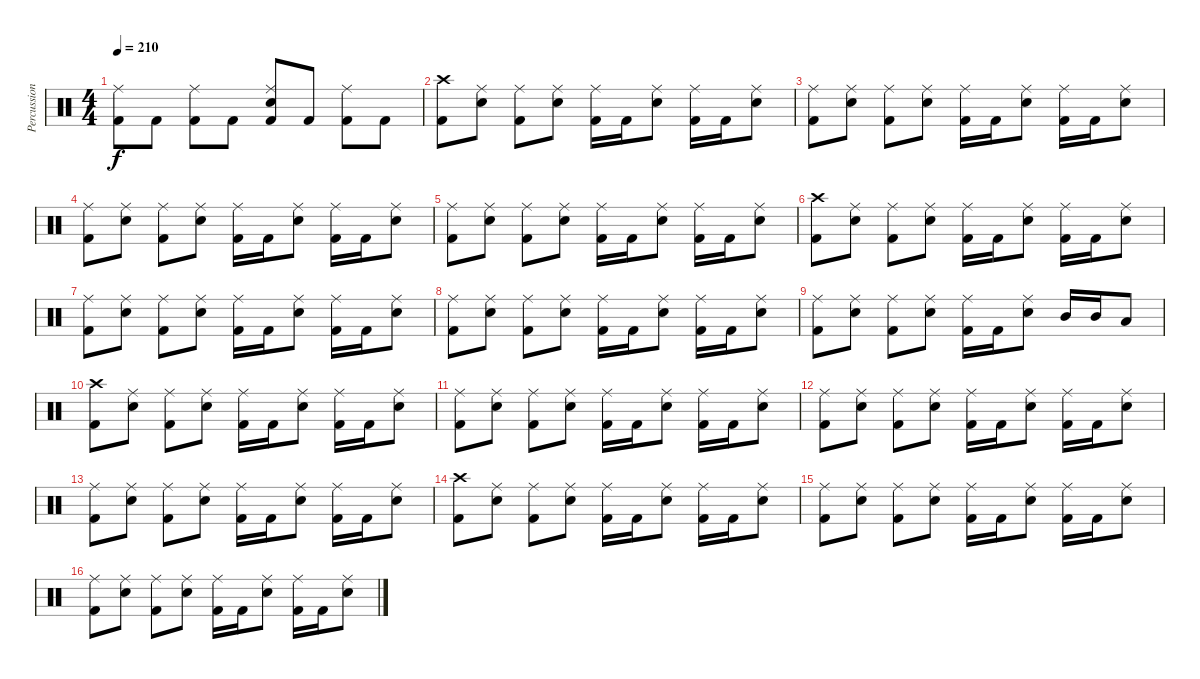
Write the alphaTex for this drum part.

\track ("Percussions" "Percussion") {instrument percussion}
\staff {score}
\articulation defaults
\ts (4 4)
\tempo 210
\clef neutral
\ks c
("Kick (hit) 2" "Ride (middle)").8{dy f} "Kick (hit) 2".8 ("Kick (hit) 2" "Ride (middle)").8 "Kick (hit) 2".8 ("Kick (hit) 2" "Electric Snare (hit)" "Ride (middle)").8 "Kick (hit) 2".8 ("Kick (hit) 2" "Ride (middle)").8 "Kick (hit) 2".8 |
("Kick (hit) 2" "Crash high (hit)").8 ("Electric Snare (hit)" "Ride (middle)").8 ("Kick (hit) 2" "Ride (middle)").8 ("Electric Snare (hit)" "Ride (middle)").8 ("Kick (hit) 2" "Ride (middle)").16 "Kick (hit) 2".16 ("Electric Snare (hit)" "Ride (middle)").8 ("Kick (hit) 2" "Ride (middle)").16 "Kick (hit) 2".16 ("Electric Snare (hit)" "Ride (middle)").8 |
("Kick (hit) 2" "Ride (middle)").8 ("Electric Snare (hit)" "Ride (middle)").8 ("Kick (hit) 2" "Ride (middle)").8 ("Electric Snare (hit)" "Ride (middle)").8 ("Kick (hit) 2" "Ride (middle)").16 "Kick (hit) 2".16 ("Electric Snare (hit)" "Ride (middle)").8 ("Kick (hit) 2" "Ride (middle)").16 "Kick (hit) 2".16 ("Electric Snare (hit)" "Ride (middle)").8 |
("Kick (hit) 2" "Ride (middle)").8 ("Electric Snare (hit)" "Ride (middle)").8 ("Kick (hit) 2" "Ride (middle)").8 ("Electric Snare (hit)" "Ride (middle)").8 ("Kick (hit) 2" "Ride (middle)").16 "Kick (hit) 2".16 ("Electric Snare (hit)" "Ride (middle)").8 ("Kick (hit) 2" "Ride (middle)").16 "Kick (hit) 2".16 ("Electric Snare (hit)" "Ride (middle)").8 |
("Kick (hit) 2" "Ride (middle)").8 ("Electric Snare (hit)" "Ride (middle)").8 ("Kick (hit) 2" "Ride (middle)").8 ("Electric Snare (hit)" "Ride (middle)").8 ("Kick (hit) 2" "Ride (middle)").16 "Kick (hit) 2".16 ("Electric Snare (hit)" "Ride (middle)").8 ("Kick (hit) 2" "Ride (middle)").16 "Kick (hit) 2".16 ("Electric Snare (hit)" "Ride (middle)").8 |
("Kick (hit) 2" "Crash high (hit)").8 ("Electric Snare (hit)" "Ride (middle)").8 ("Kick (hit) 2" "Ride (middle)").8 ("Electric Snare (hit)" "Ride (middle)").8 ("Kick (hit) 2" "Ride (middle)").16 "Kick (hit) 2".16 ("Electric Snare (hit)" "Ride (middle)").8 ("Kick (hit) 2" "Ride (middle)").16 "Kick (hit) 2".16 ("Electric Snare (hit)" "Ride (middle)").8 |
("Kick (hit) 2" "Ride (middle)").8 ("Electric Snare (hit)" "Ride (middle)").8 ("Kick (hit) 2" "Ride (middle)").8 ("Electric Snare (hit)" "Ride (middle)").8 ("Kick (hit) 2" "Ride (middle)").16 "Kick (hit) 2".16 ("Electric Snare (hit)" "Ride (middle)").8 ("Kick (hit) 2" "Ride (middle)").16 "Kick (hit) 2".16 ("Electric Snare (hit)" "Ride (middle)").8 |
("Kick (hit) 2" "Ride (middle)").8 ("Electric Snare (hit)" "Ride (middle)").8 ("Kick (hit) 2" "Ride (middle)").8 ("Electric Snare (hit)" "Ride (middle)").8 ("Kick (hit) 2" "Ride (middle)").16 "Kick (hit) 2".16 ("Electric Snare (hit)" "Ride (middle)").8 ("Kick (hit) 2" "Ride (middle)").16 "Kick (hit) 2".16 ("Electric Snare (hit)" "Ride (middle)").8 |
("Kick (hit) 2" "Ride (middle)").8 ("Electric Snare (hit)" "Ride (middle)").8 ("Kick (hit) 2" "Ride (middle)").8 ("Electric Snare (hit)" "Ride (middle)").8 ("Kick (hit) 2" "Ride (middle)").16 "Kick (hit) 2".16 ("Electric Snare (hit)" "Ride (middle)").8 "Mid Tom (hit)".16 "Mid Tom (hit)".16 "Low Tom (hit)".8 |
("Kick (hit) 2" "Crash high (hit)").8 ("Electric Snare (hit)" "Ride (middle)").8 ("Kick (hit) 2" "Ride (middle)").8 ("Electric Snare (hit)" "Ride (middle)").8 ("Kick (hit) 2" "Ride (middle)").16 "Kick (hit) 2".16 ("Electric Snare (hit)" "Ride (middle)").8 ("Kick (hit) 2" "Ride (middle)").16 "Kick (hit) 2".16 ("Electric Snare (hit)" "Ride (middle)").8 |
("Kick (hit) 2" "Ride (middle)").8 ("Electric Snare (hit)" "Ride (middle)").8 ("Kick (hit) 2" "Ride (middle)").8 ("Electric Snare (hit)" "Ride (middle)").8 ("Kick (hit) 2" "Ride (middle)").16 "Kick (hit) 2".16 ("Electric Snare (hit)" "Ride (middle)").8 ("Kick (hit) 2" "Ride (middle)").16 "Kick (hit) 2".16 ("Electric Snare (hit)" "Ride (middle)").8 |
("Kick (hit) 2" "Ride (middle)").8 ("Electric Snare (hit)" "Ride (middle)").8 ("Kick (hit) 2" "Ride (middle)").8 ("Electric Snare (hit)" "Ride (middle)").8 ("Kick (hit) 2" "Ride (middle)").16 "Kick (hit) 2".16 ("Electric Snare (hit)" "Ride (middle)").8 ("Kick (hit) 2" "Ride (middle)").16 "Kick (hit) 2".16 ("Electric Snare (hit)" "Ride (middle)").8 |
("Kick (hit) 2" "Ride (middle)").8 ("Electric Snare (hit)" "Ride (middle)").8 ("Kick (hit) 2" "Ride (middle)").8 ("Electric Snare (hit)" "Ride (middle)").8 ("Kick (hit) 2" "Ride (middle)").16 "Kick (hit) 2".16 ("Electric Snare (hit)" "Ride (middle)").8 ("Kick (hit) 2" "Ride (middle)").16 "Kick (hit) 2".16 ("Electric Snare (hit)" "Ride (middle)").8 |
("Kick (hit) 2" "Crash high (hit)").8 ("Electric Snare (hit)" "Ride (middle)").8 ("Kick (hit) 2" "Ride (middle)").8 ("Electric Snare (hit)" "Ride (middle)").8 ("Kick (hit) 2" "Ride (middle)").16 "Kick (hit) 2".16 ("Electric Snare (hit)" "Ride (middle)").8 ("Kick (hit) 2" "Ride (middle)").16 "Kick (hit) 2".16 ("Electric Snare (hit)" "Ride (middle)").8 |
("Kick (hit) 2" "Ride (middle)").8 ("Electric Snare (hit)" "Ride (middle)").8 ("Kick (hit) 2" "Ride (middle)").8 ("Electric Snare (hit)" "Ride (middle)").8 ("Kick (hit) 2" "Ride (middle)").16 "Kick (hit) 2".16 ("Electric Snare (hit)" "Ride (middle)").8 ("Kick (hit) 2" "Ride (middle)").16 "Kick (hit) 2".16 ("Electric Snare (hit)" "Ride (middle)").8 |
("Kick (hit) 2" "Ride (middle)").8 ("Electric Snare (hit)" "Ride (middle)").8 ("Kick (hit) 2" "Ride (middle)").8 ("Electric Snare (hit)" "Ride (middle)").8 ("Kick (hit) 2" "Ride (middle)").16 "Kick (hit) 2".16 ("Electric Snare (hit)" "Ride (middle)").8 ("Kick (hit) 2" "Ride (middle)").16 "Kick (hit) 2".16 ("Electric Snare (hit)" "Ride (middle)").8
